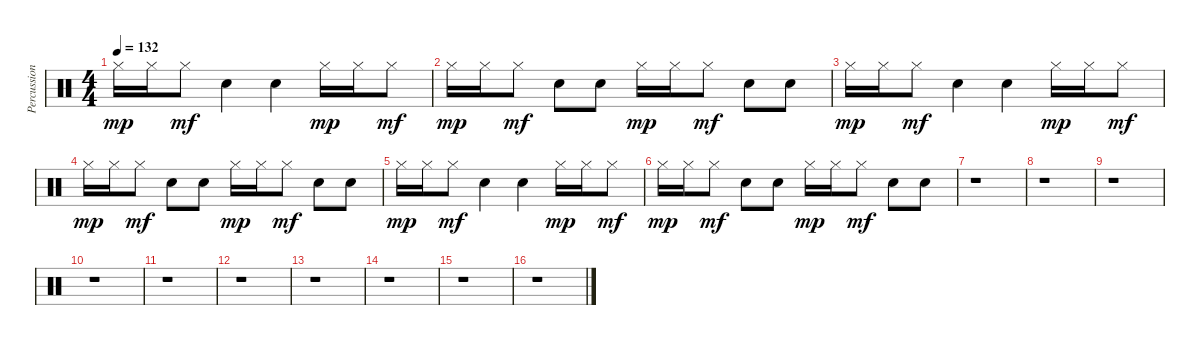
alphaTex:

\track ("Percussion" "Percussion") {instrument percussion}
\staff {score}
\articulation defaults
\ts (4 4)
\tempo 132
\clef neutral
\ks c "Hi-Hat (closed)".16{dy mp} "Hi-Hat (closed)".16 "Hi-Hat (closed)".8{dy mf} "Hand Clap (hit)".4 "Hand Clap (hit)".4 "Hi-Hat (closed)".16{dy mp} "Hi-Hat (closed)".16 "Hi-Hat (closed)".8{dy mf}
|
"Hi-Hat (closed)".16{dy mp} "Hi-Hat (closed)".16 "Hi-Hat (closed)".8{dy mf} "Hand Clap (hit)".8 "Hand Clap (hit)".8 "Hi-Hat (closed)".16{dy mp} "Hi-Hat (closed)".16 "Hi-Hat (closed)".8{dy mf} "Hand Clap (hit)".8 "Hand Clap (hit)".8 |
"Hi-Hat (closed)".16{dy mp} "Hi-Hat (closed)".16 "Hi-Hat (closed)".8{dy mf} "Hand Clap (hit)".4 "Hand Clap (hit)".4 "Hi-Hat (closed)".16{dy mp} "Hi-Hat (closed)".16 "Hi-Hat (closed)".8{dy mf} |
"Hi-Hat (closed)".16{dy mp} "Hi-Hat (closed)".16 "Hi-Hat (closed)".8{dy mf} "Hand Clap (hit)".8 "Hand Clap (hit)".8 "Hi-Hat (closed)".16{dy mp} "Hi-Hat (closed)".16 "Hi-Hat (closed)".8{dy mf} "Hand Clap (hit)".8 "Hand Clap (hit)".8 |
"Hi-Hat (closed)".16{dy mp} "Hi-Hat (closed)".16 "Hi-Hat (closed)".8{dy mf} "Hand Clap (hit)".4 "Hand Clap (hit)".4 "Hi-Hat (closed)".16{dy mp} "Hi-Hat (closed)".16 "Hi-Hat (closed)".8{dy mf} |
"Hi-Hat (closed)".16{dy mp} "Hi-Hat (closed)".16 "Hi-Hat (closed)".8{dy mf} "Hand Clap (hit)".8 "Hand Clap (hit)".8 "Hi-Hat (closed)".16{dy mp} "Hi-Hat (closed)".16 "Hi-Hat (closed)".8{dy mf} "Hand Clap (hit)".8 "Hand Clap (hit)".8 |
r.1 |
r.1 |
r.1 |
r.1 |
r.1 |
r.1 |
r.1 |
r.1 |
r.1 |
r.1
